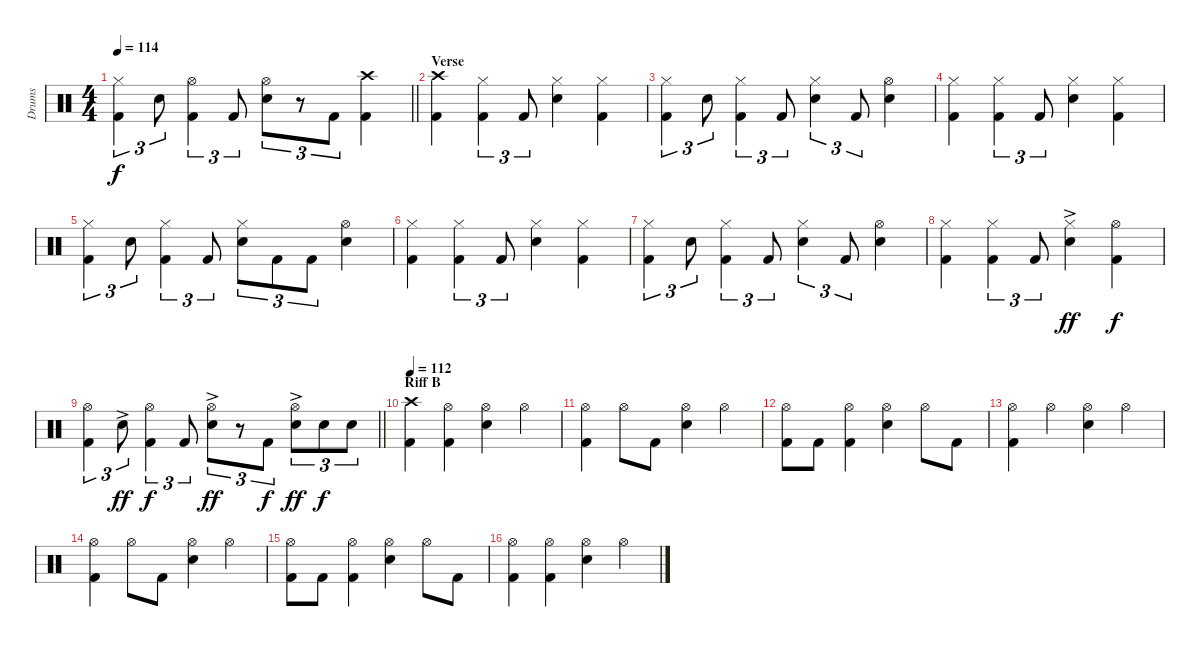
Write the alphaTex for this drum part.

\track ("Drums" "Drums") {instrument percussion}
\staff {score}
\articulation defaults
\ts (4 4)
\tempo 114
\clef neutral
\barLineRight lightlight
\ks c
("Hi-Hat (closed)" "Kick (hit) 2").4{tu (3 2) dy f} "Electric Snare (hit)".8{tu (3 2)} ("Hi-Hat (open)" "Kick (hit) 2").4{tu (3 2)} "Kick (hit) 2".8{tu (3 2)} ("Hi-Hat (open)" "Electric Snare (hit)").8{tu (3 2)} r.8{tu (3 2)} "Kick (hit) 2".8{tu (3 2)} ("Crash high (hit)" "Kick (hit) 2").4 |
\section ("" "Verse")
("Crash high (hit)" "Kick (hit) 2").4 ("Hi-Hat (closed)" "Kick (hit) 2").4{tu (3 2)} "Kick (hit) 2".8{tu (3 2)} ("Hi-Hat (closed)" "Electric Snare (hit)").4 ("Hi-Hat (closed)" "Kick (hit) 2").4 |
("Hi-Hat (closed)" "Kick (hit) 2").4{tu (3 2)} "Electric Snare (hit)".8{tu (3 2)} ("Hi-Hat (closed)" "Kick (hit) 2").4{tu (3 2)} "Kick (hit) 2".8{tu (3 2)} ("Hi-Hat (closed)" "Electric Snare (hit)").4{tu (3 2)} "Kick (hit) 2".8{tu (3 2)} ("Hi-Hat (open)" "Electric Snare (hit)").4 |
("Hi-Hat (closed)" "Kick (hit) 2").4 ("Hi-Hat (closed)" "Kick (hit) 2").4{tu (3 2)} "Kick (hit) 2".8{tu (3 2)} ("Hi-Hat (closed)" "Electric Snare (hit)").4 ("Hi-Hat (closed)" "Kick (hit) 2").4 |
("Hi-Hat (closed)" "Kick (hit) 2").4{tu (3 2)} "Electric Snare (hit)".8{tu (3 2)} ("Hi-Hat (closed)" "Kick (hit) 2").4{tu (3 2)} "Kick (hit) 2".8{tu (3 2)} ("Hi-Hat (closed)" "Electric Snare (hit)").8{tu (3 2)} "Kick (hit) 2".8{tu (3 2)} "Kick (hit) 2".8{tu (3 2)} ("Hi-Hat (open)" "Electric Snare (hit)").4 |
("Hi-Hat (closed)" "Kick (hit) 2").4 ("Hi-Hat (closed)" "Kick (hit) 2").4{tu (3 2)} "Kick (hit) 2".8{tu (3 2)} ("Hi-Hat (closed)" "Electric Snare (hit)").4 ("Hi-Hat (closed)" "Kick (hit) 2").4 |
("Hi-Hat (closed)" "Kick (hit) 2").4{tu (3 2)} "Electric Snare (hit)".8{tu (3 2)} ("Hi-Hat (closed)" "Kick (hit) 2").4{tu (3 2)} "Kick (hit) 2".8{tu (3 2)} ("Hi-Hat (closed)" "Electric Snare (hit)").4{tu (3 2)} "Kick (hit) 2".8{tu (3 2)} ("Hi-Hat (open)" "Electric Snare (hit)").4 |
("Hi-Hat (closed)" "Kick (hit) 2").4 ("Hi-Hat (closed)" "Kick (hit) 2").4{tu (3 2)} "Kick (hit) 2".8{tu (3 2)} ("Hi-Hat (closed)" "Electric Snare (hit)"{ac}).4{dy ff} ("Hi-Hat (open)" "Kick (hit) 2").4{dy f} |
\barLineRight lightlight
("Hi-Hat (open)" "Kick (hit) 2").4{tu (3 2)} "Electric Snare (hit)"{ac}.8{tu (3 2) dy ff} ("Hi-Hat (open)" "Kick (hit) 2").4{tu (3 2) dy f} "Kick (hit) 2".8{tu (3 2)} ("Hi-Hat (open)" "Electric Snare (hit)"{ac}).8{tu (3 2) dy ff} r.8{tu (3 2)} "Kick (hit) 2".8{tu (3 2) dy f} ("Hi-Hat (open)" "Electric Snare (hit)"{ac}).8{tu (3 2) dy ff} "Electric Snare (hit)".8{tu (3 2) dy f} "Electric Snare (hit)".8{tu (3 2)} |
\section ("" "Riff B")
\tempo 112
("Crash high (hit)" "Kick (hit) 2").4 ("Hi-Hat (open)" "Kick (hit) 2").4 ("Hi-Hat (open)" "Electric Snare (hit)").4 "Hi-Hat (open)".4 |
("Hi-Hat (open)" "Kick (hit) 2").4 "Hi-Hat (open)".8 "Kick (hit) 2".8 ("Hi-Hat (open)" "Electric Snare (hit)").4 "Hi-Hat (open)".4 |
("Hi-Hat (open)" "Kick (hit) 2").8 "Kick (hit) 2".8 ("Hi-Hat (open)" "Kick (hit) 2").4 ("Hi-Hat (open)" "Electric Snare (hit)").4 "Hi-Hat (open)".8 "Kick (hit) 2".8 |
("Hi-Hat (open)" "Kick (hit) 2").4 "Hi-Hat (open)".4 ("Hi-Hat (open)" "Electric Snare (hit)").4 "Hi-Hat (open)".4 |
("Hi-Hat (open)" "Kick (hit) 2").4 "Hi-Hat (open)".8 "Kick (hit) 2".8 ("Hi-Hat (open)" "Electric Snare (hit)").4 "Hi-Hat (open)".4 |
("Hi-Hat (open)" "Kick (hit) 2").8 "Kick (hit) 2".8 ("Hi-Hat (open)" "Kick (hit) 2").4 ("Hi-Hat (open)" "Electric Snare (hit)").4 "Hi-Hat (open)".8 "Kick (hit) 2".8 |
("Hi-Hat (open)" "Kick (hit) 2").4 ("Hi-Hat (open)" "Kick (hit) 2").4 ("Hi-Hat (open)" "Electric Snare (hit)").4 "Hi-Hat (open)".4
